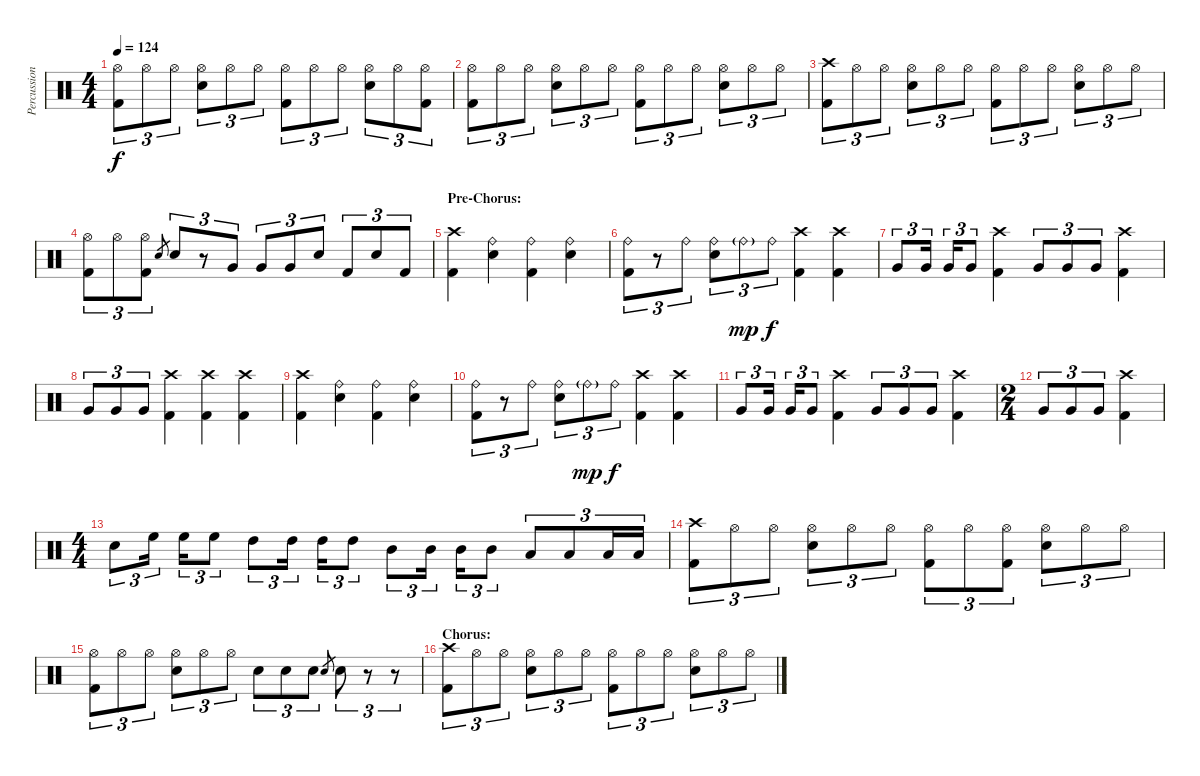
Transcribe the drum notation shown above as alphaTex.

\track ("Percussion" "Percussion") {instrument percussion}
\staff {score}
\articulation defaults
\ts (4 4)
\tempo 124
\clef neutral
\ks c
("Hi-Hat (open)" "Kick (hit) 2").8{tu (3 2) dy f} "Hi-Hat (open)".8{tu (3 2)} "Hi-Hat (open)".8{tu (3 2)} ("Hi-Hat (open)" "Snare (hit) 2").8{tu (3 2)} "Hi-Hat (open)".8{tu (3 2)} "Hi-Hat (open)".8{tu (3 2)} ("Hi-Hat (open)" "Kick (hit) 2").8{tu (3 2)} "Hi-Hat (open)".8{tu (3 2)} "Hi-Hat (open)".8{tu (3 2)} ("Hi-Hat (open)" "Snare (hit) 2").8{tu (3 2)} "Hi-Hat (open)".8{tu (3 2)} ("Hi-Hat (open)" "Kick (hit) 2").8{tu (3 2)} |
("Hi-Hat (open)" "Kick (hit) 2").8{tu (3 2)} "Hi-Hat (open)".8{tu (3 2)} "Hi-Hat (open)".8{tu (3 2)} ("Hi-Hat (open)" "Snare (hit) 2").8{tu (3 2)} "Hi-Hat (open)".8{tu (3 2)} "Hi-Hat (open)".8{tu (3 2)} ("Hi-Hat (open)" "Kick (hit) 2").8{tu (3 2)} "Hi-Hat (open)".8{tu (3 2)} "Hi-Hat (open)".8{tu (3 2)} ("Hi-Hat (open)" "Snare (hit) 2").8{tu (3 2)} "Hi-Hat (open)".8{tu (3 2)} "Hi-Hat (open)".8{tu (3 2)} |
("Crash high (hit)" "Kick (hit) 2").8{tu (3 2)} "Hi-Hat (open)".8{tu (3 2)} "Hi-Hat (open)".8{tu (3 2)} ("Hi-Hat (open)" "Snare (hit) 2").8{tu (3 2)} "Hi-Hat (open)".8{tu (3 2)} "Hi-Hat (open)".8{tu (3 2)} ("Hi-Hat (open)" "Kick (hit) 2").8{tu (3 2)} "Hi-Hat (open)".8{tu (3 2)} "Hi-Hat (open)".8{tu (3 2)} ("Hi-Hat (open)" "Snare (hit) 2").8{tu (3 2)} "Hi-Hat (open)".8{tu (3 2)} "Hi-Hat (open)".8{tu (3 2)} |
("Hi-Hat (open)" "Kick (hit) 2").8{tu (3 2)} "Hi-Hat (open)".8{tu (3 2)} ("Hi-Hat (open)" "Kick (hit) 2").8{tu (3 2)} "Snare (hit) 2".8{gr} "Snare (hit) 2".8{tu (3 2)} r.8{tu (3 2)} "Very Low Tom (hit)".8{tu (3 2)} "Very Low Tom (hit)".8{tu (3 2)} "Very Low Tom (hit)".8{tu (3 2)} "Snare (hit) 2".8{tu (3 2)} "Kick (hit) 2".8{tu (3 2)} "Snare (hit) 2".8{tu (3 2)} "Kick (hit) 2".8{tu (3 2)} |
\section ("" "Pre-Chorus:")
("Crash high (hit)" "Kick (hit) 2").4 ("Ride (bell)" "Snare (hit) 2").4 ("Ride (bell)" "Kick (hit) 2").4 ("Ride (bell)" "Snare (hit) 2").4 |
("Ride (bell)" "Kick (hit) 2").8{tu (3 2)} r.8{tu (3 2)} "Ride (bell)".8{tu (3 2)} ("Ride (bell)" "Snare (hit) 2").8{tu (3 2)} "Ride (bell)"{g}.8{tu (3 2) dy mp} "Ride (bell)".8{tu (3 2) dy f} ("Crash high (hit)" "Kick (hit) 2").4 ("Crash high (hit)" "Kick (hit) 2").4 |
"Very Low Tom (hit)".8{tu (3 2)} "Very Low Tom (hit)".16{tu (3 2)} "Very Low Tom (hit)".16{tu (3 2)} "Very Low Tom (hit)".8{tu (3 2)} ("Crash high (hit)" "Kick (hit) 2").4 "Very Low Tom (hit)".8{tu (3 2)} "Very Low Tom (hit)".8{tu (3 2)} "Very Low Tom (hit)".8{tu (3 2)} ("Crash high (hit)" "Kick (hit) 2").4 |
"Very Low Tom (hit)".8{tu (3 2)} "Very Low Tom (hit)".8{tu (3 2)} "Very Low Tom (hit)".8{tu (3 2)} ("Crash high (hit)" "Kick (hit) 2").4 ("Crash high (hit)" "Kick (hit) 2").4 ("Crash high (hit)" "Kick (hit) 2").4 |
("Crash high (hit)" "Kick (hit) 2").4 ("Ride (bell)" "Snare (hit) 2").4 ("Ride (bell)" "Kick (hit) 2").4 ("Ride (bell)" "Snare (hit) 2").4 |
("Ride (bell)" "Kick (hit) 2").8{tu (3 2)} r.8{tu (3 2)} "Ride (bell)".8{tu (3 2)} ("Ride (bell)" "Snare (hit) 2").8{tu (3 2)} "Ride (bell)"{g}.8{tu (3 2) dy mp} "Ride (bell)".8{tu (3 2) dy f} ("Crash high (hit)" "Kick (hit) 2").4 ("Crash high (hit)" "Kick (hit) 2").4 |
"Very Low Tom (hit)".8{tu (3 2)} "Very Low Tom (hit)".16{tu (3 2)} "Very Low Tom (hit)".16{tu (3 2)} "Very Low Tom (hit)".8{tu (3 2)} ("Crash high (hit)" "Kick (hit) 2").4 "Very Low Tom (hit)".8{tu (3 2)} "Very Low Tom (hit)".8{tu (3 2)} "Very Low Tom (hit)".8{tu (3 2)} ("Crash high (hit)" "Kick (hit) 2").4 |
\ts (2 4)
"Very Low Tom (hit)".8{tu (3 2)} "Very Low Tom (hit)".8{tu (3 2)} "Very Low Tom (hit)".8{tu (3 2)} ("Crash high (hit)" "Kick (hit) 2").4 |
\ts (4 4)
"Snare (hit) 2".8{tu (3 2)} "High Floor Tom (hit)".16{tu (3 2)} "High Floor Tom (hit)".16{tu (3 2)} "High Floor Tom (hit)".8{tu (3 2)} "High Tom (hit)".8{tu (3 2)} "High Tom (hit)".16{tu (3 2)} "High Tom (hit)".16{tu (3 2)} "High Tom (hit)".8{tu (3 2)} "Mid Tom (hit)".8{tu (3 2)} "Mid Tom (hit)".16{tu (3 2)} "Mid Tom (hit)".16{tu (3 2)} "Mid Tom (hit)".8{tu (3 2)} "Low Tom (hit)".8{tu (3 2)} "Low Tom (hit)".8{tu (3 2)} "Low Tom (hit)".16{tu (3 2)} "Low Tom (hit)".16{tu (3 2)} |
("Crash high (hit)" "Kick (hit) 2").8{tu (3 2)} "Hi-Hat (open)".8{tu (3 2)} "Hi-Hat (open)".8{tu (3 2)} ("Hi-Hat (open)" "Snare (hit) 2").8{tu (3 2)} "Hi-Hat (open)".8{tu (3 2)} "Hi-Hat (open)".8{tu (3 2)} ("Hi-Hat (open)" "Kick (hit) 2").8{tu (3 2)} "Hi-Hat (open)".8{tu (3 2)} ("Hi-Hat (open)" "Kick (hit) 2").8{tu (3 2)} ("Hi-Hat (open)" "Snare (hit) 2").8{tu (3 2)} "Hi-Hat (open)".8{tu (3 2)} "Hi-Hat (open)".8{tu (3 2)} |
("Hi-Hat (open)" "Kick (hit) 2").8{tu (3 2)} "Hi-Hat (open)".8{tu (3 2)} "Hi-Hat (open)".8{tu (3 2)} ("Hi-Hat (open)" "Snare (hit) 2").8{tu (3 2)} "Hi-Hat (open)".8{tu (3 2)} "Hi-Hat (open)".8{tu (3 2)} "Snare (hit) 2".8{tu (3 2)} "Snare (hit) 2".8{tu (3 2)} "Snare (hit) 2".8{tu (3 2)} "Snare (hit) 2".8{gr} "Snare (hit) 2".8{tu (3 2)} r.8{tu (3 2)} r.8{tu (3 2)} |
\section ("" "Chorus:")
("Crash high (hit)" "Kick (hit) 2").8{tu (3 2)} "Hi-Hat (open)".8{tu (3 2)} "Hi-Hat (open)".8{tu (3 2)} ("Hi-Hat (open)" "Snare (hit) 2").8{tu (3 2)} "Hi-Hat (open)".8{tu (3 2)} "Hi-Hat (open)".8{tu (3 2)} ("Hi-Hat (open)" "Kick (hit) 2").8{tu (3 2)} "Hi-Hat (open)".8{tu (3 2)} "Hi-Hat (open)".8{tu (3 2)} ("Hi-Hat (open)" "Snare (hit) 2").8{tu (3 2)} "Hi-Hat (open)".8{tu (3 2)} "Hi-Hat (open)".8{tu (3 2)}
